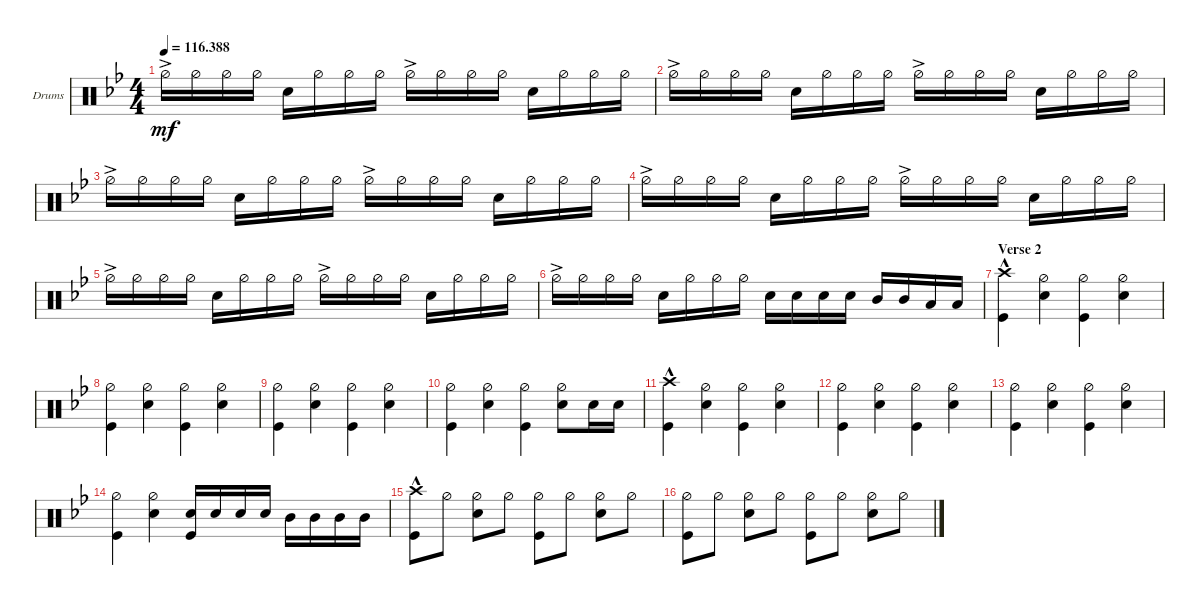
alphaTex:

\bracketExtendMode groupsimilarinstruments
\firstSystemTrackNameOrientation horizontal
\otherSystemsTrackNameOrientation horizontal
\track ("Drumkit" "Drums") {instrument percussion}
\staff {score}
\articulation defaults
\ts (4 4)
\tempo
116.388
\accidentals auto
\clef neutral
\ottava regular
\simile none
\ks gminor "Hi-Hat (half)"{ac}.16{dy mf} "Hi-Hat (half)".16 "Hi-Hat (half)".16 "Hi-Hat (half)".16 "Snare (hit) 2".16 "Hi-Hat (half)".16 "Hi-Hat (half)".16 "Hi-Hat (half)".16 "Hi-Hat (half)"{ac}.16 "Hi-Hat (half)".16 "Hi-Hat (half)".16 "Hi-Hat (half)".16 "Snare (hit) 2".16 "Hi-Hat (half)".16 "Hi-Hat (half)".16 "Hi-Hat (half)".16
|
"Hi-Hat (half)"{ac}.16 "Hi-Hat (half)".16 "Hi-Hat (half)".16 "Hi-Hat (half)".16 "Snare (hit) 2".16 "Hi-Hat (half)".16 "Hi-Hat (half)".16 "Hi-Hat (half)".16 "Hi-Hat (half)"{ac}.16 "Hi-Hat (half)".16 "Hi-Hat (half)".16 "Hi-Hat (half)".16 "Snare (hit) 2".16 "Hi-Hat (half)".16 "Hi-Hat (half)".16 "Hi-Hat (half)".16 |
"Hi-Hat (half)"{ac}.16 "Hi-Hat (half)".16 "Hi-Hat (half)".16 "Hi-Hat (half)".16 "Snare (hit) 2".16 "Hi-Hat (half)".16 "Hi-Hat (half)".16 "Hi-Hat (half)".16 "Hi-Hat (half)"{ac}.16 "Hi-Hat (half)".16 "Hi-Hat (half)".16 "Hi-Hat (half)".16 "Snare (hit) 2".16 "Hi-Hat (half)".16 "Hi-Hat (half)".16 "Hi-Hat (half)".16 |
"Hi-Hat (half)"{ac}.16 "Hi-Hat (half)".16 "Hi-Hat (half)".16 "Hi-Hat (half)".16 "Snare (hit) 2".16 "Hi-Hat (half)".16 "Hi-Hat (half)".16 "Hi-Hat (half)".16 "Hi-Hat (half)"{ac}.16 "Hi-Hat (half)".16 "Hi-Hat (half)".16 "Hi-Hat (half)".16 "Snare (hit) 2".16 "Hi-Hat (half)".16 "Hi-Hat (half)".16 "Hi-Hat (half)".16 |
"Hi-Hat (half)"{ac}.16 "Hi-Hat (half)".16 "Hi-Hat (half)".16 "Hi-Hat (half)".16 "Snare (hit) 2".16 "Hi-Hat (half)".16 "Hi-Hat (half)".16 "Hi-Hat (half)".16 "Hi-Hat (half)"{ac}.16 "Hi-Hat (half)".16 "Hi-Hat (half)".16 "Hi-Hat (half)".16 "Snare (hit) 2".16 "Hi-Hat (half)".16 "Hi-Hat (half)".16 "Hi-Hat (half)".16 |
"Hi-Hat (half)"{ac}.16 "Hi-Hat (half)".16 "Hi-Hat (half)".16 "Hi-Hat (half)".16 "Snare (hit) 2".16 "Hi-Hat (half)".16 "Hi-Hat (half)".16 "Hi-Hat (half)".16 "Snare (hit) 2".16 "Snare (hit) 2".16 "Snare (hit) 2".16 "Snare (hit) 2".16 "Mid Tom (hit)".16 "Mid Tom (hit)".16 "Low Tom (hit)".16 "Low Tom (hit)".16 |
\section ("" "Verse 2")
("Kick (hit)" "Crash high (hit)"{hac}).4 ("Hi-Hat (half)" "Snare (hit) 2").4 ("Hi-Hat (half)" "Kick (hit)").4 ("Hi-Hat (half)" "Snare (hit) 2").4 |
("Hi-Hat (half)" "Kick (hit)").4 ("Hi-Hat (half)" "Snare (hit) 2").4 ("Hi-Hat (half)" "Kick (hit)").4 ("Hi-Hat (half)" "Snare (hit) 2").4 |
("Hi-Hat (half)" "Kick (hit)").4 ("Hi-Hat (half)" "Snare (hit) 2").4 ("Hi-Hat (half)" "Kick (hit)").4 ("Hi-Hat (half)" "Snare (hit) 2").4 |
("Hi-Hat (half)" "Kick (hit)").4 ("Hi-Hat (half)" "Snare (hit) 2").4 ("Hi-Hat (half)" "Kick (hit)").4 ("Hi-Hat (half)" "Snare (hit) 2").8 "Snare (hit) 2".16 "Snare (hit) 2".16 |
("Kick (hit)" "Crash high (hit)"{hac}).4 ("Hi-Hat (half)" "Snare (hit) 2").4 ("Hi-Hat (half)" "Kick (hit)").4 ("Hi-Hat (half)" "Snare (hit) 2").4 |
("Hi-Hat (half)" "Kick (hit)").4 ("Hi-Hat (half)" "Snare (hit) 2").4 ("Hi-Hat (half)" "Kick (hit)").4 ("Hi-Hat (half)" "Snare (hit) 2").4 |
("Hi-Hat (half)" "Kick (hit)").4 ("Hi-Hat (half)" "Snare (hit) 2").4 ("Hi-Hat (half)" "Kick (hit)").4 ("Hi-Hat (half)" "Snare (hit) 2").4 |
("Hi-Hat (half)" "Kick (hit)").4 ("Hi-Hat (half)" "Snare (hit) 2").4 ("Snare (hit) 2" "Kick (hit)").16 "Snare (hit) 2".16 "Snare (hit) 2".16 "Snare (hit) 2".16 "Mid Tom (hit)".16 "Mid Tom (hit)".16 "Mid Tom (hit)".16 "Mid Tom (hit)".16 |
("Kick (hit)" "Crash high (hit)"{hac}).8 "Hi-Hat (half)".8 ("Hi-Hat (half)" "Snare (hit) 2").8 "Hi-Hat (half)".8 ("Hi-Hat (half)" "Kick (hit)").8 "Hi-Hat (half)".8 ("Hi-Hat (half)" "Snare (hit) 2").8 "Hi-Hat (half)".8 |
("Hi-Hat (half)" "Kick (hit)").8 "Hi-Hat (half)".8 ("Hi-Hat (half)" "Snare (hit) 2").8 "Hi-Hat (half)".8 ("Hi-Hat (half)" "Kick (hit)").8 "Hi-Hat (half)".8 ("Hi-Hat (half)" "Snare (hit) 2").8 "Hi-Hat (half)".8
